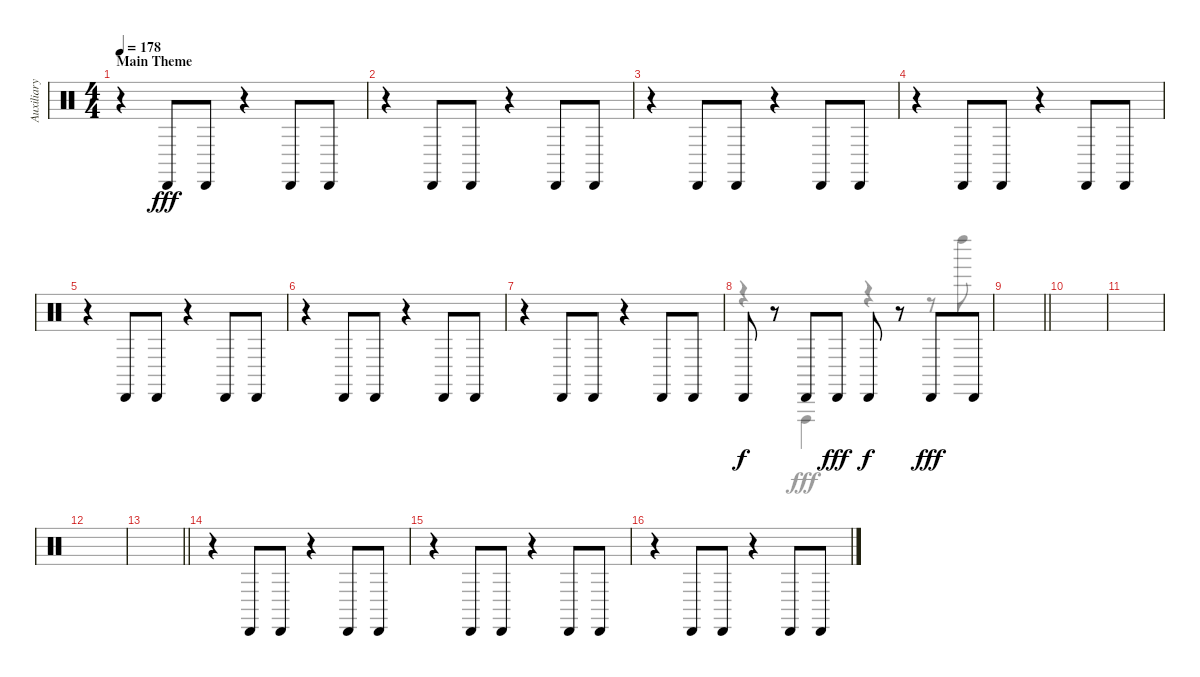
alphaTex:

\track ("Auxiliary Percussion" "Auxiliary ") {instrument percussion}
\staff {score}
\articulation defaults
\voice
\ts (4 4)
\section ("" "Main Theme")
\tempo 178
\clef neutral
\ks c
r.4{dy pp} "Cabasa (hit)".8{dy fff} "Cabasa (hit)".8 r.4 "Cabasa (hit)".8 "Cabasa (hit)".8 |
r.4 "Cabasa (hit)".8 "Cabasa (hit)".8 r.4 "Cabasa (hit)".8 "Cabasa (hit)".8 |
r.4 "Cabasa (hit)".8 "Cabasa (hit)".8 r.4 "Cabasa (hit)".8 "Cabasa (hit)".8 |
r.4 "Cabasa (hit)".8 "Cabasa (hit)".8 r.4 "Cabasa (hit)".8 "Cabasa (hit)".8 |
r.4 "Cabasa (hit)".8 "Cabasa (hit)".8 r.4 "Cabasa (hit)".8 "Cabasa (hit)".8 |
r.4 "Cabasa (hit)".8 "Cabasa (hit)".8 r.4 "Cabasa (hit)".8 "Cabasa (hit)".8 |
r.4 "Cabasa (hit)".8 "Cabasa (hit)".8 r.4 "Cabasa (hit)".8 "Cabasa (hit)".8 |
"Cabasa (hit)".8{dy f} r.8 "Cabasa (hit)".8 "Cabasa (hit)".8{dy fff} "Cabasa (hit)".8{dy f} r.8 "Cabasa (hit)".8{dy fff} "Cabasa (hit)".8 |
\barLineRight lightlight
|
|
|
|
\barLineRight lightlight
|
r.4 "Cabasa (hit)".8 "Cabasa (hit)".8 r.4 "Cabasa (hit)".8 "Cabasa (hit)".8 |
r.4 "Cabasa (hit)".8 "Cabasa (hit)".8 r.4 "Cabasa (hit)".8 "Cabasa (hit)".8 |
r.4 "Cabasa (hit)".8 "Cabasa (hit)".8 r.4 "Cabasa (hit)".8 "Cabasa (hit)".8
\voice
\clef neutral
\ottava regular
\simile none
\ks c
|
|
|
|
|
|
|
r.4 "Vibraslap (hit)".4 r.4 r.8 "Left Maraca (hit)".8 |
\barLineRight lightlight
|
|
|
|
\barLineRight lightlight
|
|
|
